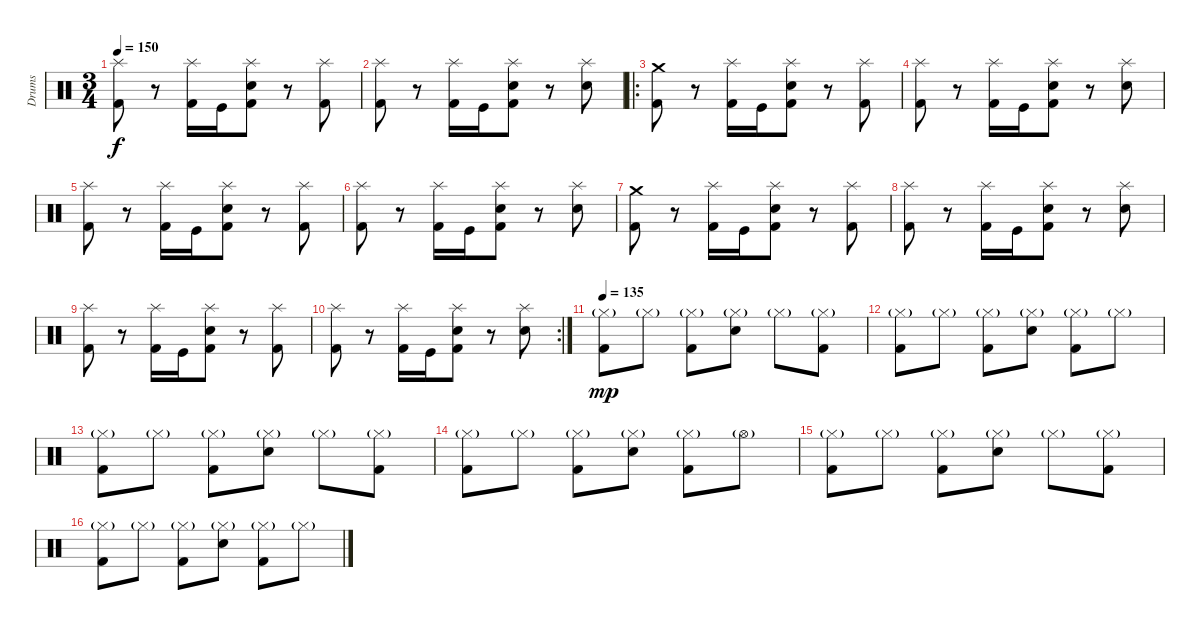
\track ("Drums" "Drums") {instrument percussion}
\staff {score}
\articulation defaults
\ts (3 4)
\tempo 150
\clef neutral
\ks c
("Splash (hit)" "Kick (hit) 2").8{dy f} r.8 ("Splash (hit)" "Kick (hit) 2").16 "Kick (hit)".16 ("Splash (hit)" "Electric Snare (hit)" "Kick (hit) 2").8 r.8 ("Splash (hit)" "Kick (hit) 2").8 |
("Splash (hit)" "Kick (hit) 2").8 r.8 ("Splash (hit)" "Kick (hit) 2").16 "Kick (hit)".16 ("Splash (hit)" "Electric Snare (hit)" "Kick (hit) 2").8 r.8 ("Splash (hit)" "Electric Snare (hit)").8 |
\ro
("Crash medium (hit)" "Kick (hit) 2").8 r.8 ("Splash (hit)" "Kick (hit) 2").16 "Kick (hit)".16 ("Splash (hit)" "Electric Snare (hit)" "Kick (hit) 2").8 r.8 ("Splash (hit)" "Kick (hit) 2").8 |
("Splash (hit)" "Kick (hit) 2").8 r.8 ("Splash (hit)" "Kick (hit) 2").16 "Kick (hit)".16 ("Splash (hit)" "Electric Snare (hit)" "Kick (hit) 2").8 r.8 ("Splash (hit)" "Electric Snare (hit)").8 |
("Splash (hit)" "Kick (hit) 2").8 r.8 ("Splash (hit)" "Kick (hit) 2").16 "Kick (hit)".16 ("Splash (hit)" "Electric Snare (hit)" "Kick (hit) 2").8 r.8 ("Splash (hit)" "Kick (hit) 2").8 |
("Splash (hit)" "Kick (hit) 2").8 r.8 ("Splash (hit)" "Kick (hit) 2").16 "Kick (hit)".16 ("Splash (hit)" "Electric Snare (hit)" "Kick (hit) 2").8 r.8 ("Splash (hit)" "Electric Snare (hit)").8 |
("Crash medium (hit)" "Kick (hit) 2").8 r.8 ("Splash (hit)" "Kick (hit) 2").16 "Kick (hit)".16 ("Splash (hit)" "Electric Snare (hit)" "Kick (hit) 2").8 r.8 ("Splash (hit)" "Kick (hit) 2").8 |
("Splash (hit)" "Kick (hit) 2").8 r.8 ("Splash (hit)" "Kick (hit) 2").16 "Kick (hit)".16 ("Splash (hit)" "Electric Snare (hit)" "Kick (hit) 2").8 r.8 ("Splash (hit)" "Electric Snare (hit)").8 |
("Splash (hit)" "Kick (hit) 2").8 r.8 ("Splash (hit)" "Kick (hit) 2").16 "Kick (hit)".16 ("Splash (hit)" "Electric Snare (hit)" "Kick (hit) 2").8 r.8 ("Splash (hit)" "Kick (hit) 2").8 |
\rc 2
("Splash (hit)" "Kick (hit) 2").8 r.8 ("Splash (hit)" "Kick (hit) 2").16 "Kick (hit)".16 ("Splash (hit)" "Electric Snare (hit)" "Kick (hit) 2").8 r.8 ("Splash (hit)" "Electric Snare (hit)").8 |
\tempo 135
("Hi-Hat (closed)"{g} "Kick (hit) 2").8{dy mp} "Hi-Hat (closed)"{g}.8 ("Hi-Hat (closed)"{g} "Kick (hit) 2").8 ("Hi-Hat (closed)"{g} "Electric Snare (hit)").8 "Hi-Hat (closed)"{g}.8 ("Hi-Hat (closed)"{g} "Kick (hit) 2").8 |
("Hi-Hat (closed)"{g} "Kick (hit) 2").8 "Hi-Hat (closed)"{g}.8 ("Hi-Hat (closed)"{g} "Kick (hit) 2").8 ("Hi-Hat (closed)"{g} "Electric Snare (hit)").8 ("Hi-Hat (closed)"{g} "Kick (hit) 2").8 "Hi-Hat (closed)"{g}.8 |
("Hi-Hat (closed)"{g} "Kick (hit) 2").8 "Hi-Hat (closed)"{g}.8 ("Hi-Hat (closed)"{g} "Kick (hit) 2").8 ("Hi-Hat (closed)"{g} "Electric Snare (hit)").8 "Hi-Hat (closed)"{g}.8 ("Hi-Hat (closed)"{g} "Kick (hit) 2").8 |
("Hi-Hat (closed)"{g} "Kick (hit) 2").8 "Hi-Hat (closed)"{g}.8 ("Hi-Hat (closed)"{g} "Kick (hit) 2").8 ("Hi-Hat (closed)"{g} "Electric Snare (hit)").8 ("Hi-Hat (closed)"{g} "Kick (hit) 2").8 "Hi-Hat (open)"{g}.8 |
("Hi-Hat (closed)"{g} "Kick (hit) 2").8 "Hi-Hat (closed)"{g}.8 ("Hi-Hat (closed)"{g} "Kick (hit) 2").8 ("Hi-Hat (closed)"{g} "Electric Snare (hit)").8 "Hi-Hat (closed)"{g}.8 ("Hi-Hat (closed)"{g} "Kick (hit) 2").8 |
("Hi-Hat (closed)"{g} "Kick (hit) 2").8 "Hi-Hat (closed)"{g}.8 ("Hi-Hat (closed)"{g} "Kick (hit) 2").8 ("Hi-Hat (closed)"{g} "Electric Snare (hit)").8 ("Hi-Hat (closed)"{g} "Kick (hit) 2").8 "Hi-Hat (closed)"{g}.8
